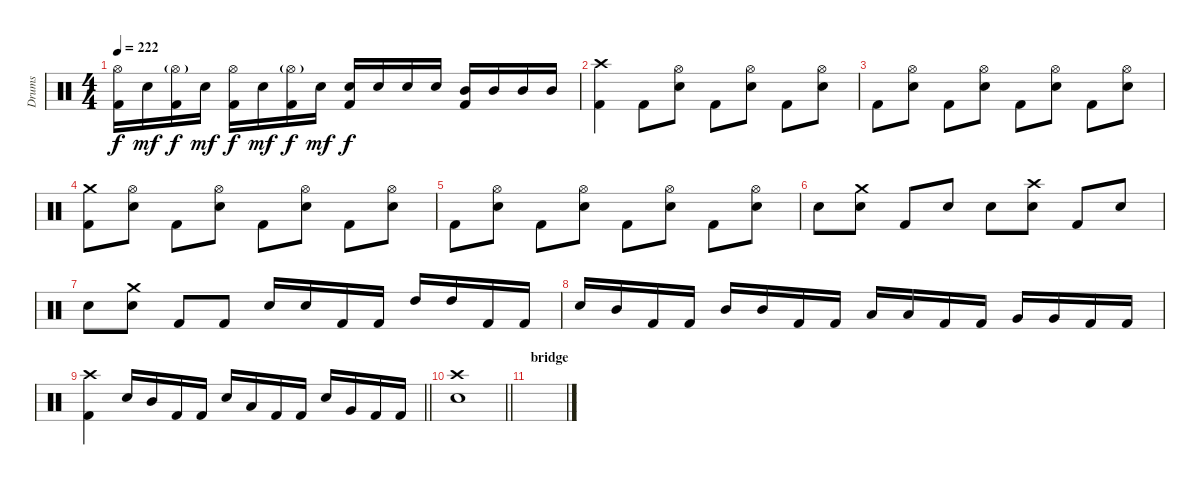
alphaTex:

\track ("Drums" "Drums") {instrument percussion}
\staff {score}
\articulation defaults
\ts (4 4)
\tempo 222
\clef neutral
\ks c
("Hi-Hat (open)" "Kick (hit) 2").16{dy f} "Electric Snare (hit)".16{dy mf} ("Hi-Hat (open)"{g} "Kick (hit) 2").16{dy f} "Electric Snare (hit)".16{dy mf} ("Hi-Hat (open)" "Kick (hit) 2").16{dy f} "Electric Snare (hit)".16{dy mf} ("Hi-Hat (open)"{g} "Kick (hit) 2").16{dy f} "Electric Snare (hit)".16{dy mf} ("Electric Snare (hit)" "Kick (hit) 2").16{dy f} "Electric Snare (hit)".16 "Electric Snare (hit)".16 "Electric Snare (hit)".16 ("Mid Tom (hit)" "Kick (hit) 2").16 "Mid Tom (hit)".16 "Mid Tom (hit)".16 "Mid Tom (hit)".16 |
("Crash high (hit)" "Kick (hit) 2").4 "Kick (hit) 2".8 ("Hi-Hat (open)" "Electric Snare (hit)").8 "Kick (hit) 2".8 ("Hi-Hat (open)" "Electric Snare (hit)").8 "Kick (hit) 2".8 ("Hi-Hat (open)" "Electric Snare (hit)").8 |
"Kick (hit) 2".8 ("Hi-Hat (open)" "Electric Snare (hit)").8 "Kick (hit) 2".8 ("Hi-Hat (open)" "Electric Snare (hit)").8 "Kick (hit) 2".8 ("Hi-Hat (open)" "Electric Snare (hit)").8 "Kick (hit) 2".8 ("Hi-Hat (open)" "Electric Snare (hit)").8 |
("Crash medium (hit)" "Kick (hit) 2").8 ("Hi-Hat (open)" "Electric Snare (hit)").8 "Kick (hit) 2".8 ("Hi-Hat (open)" "Electric Snare (hit)").8 "Kick (hit) 2".8 ("Hi-Hat (open)" "Electric Snare (hit)").8 "Kick (hit) 2".8 ("Hi-Hat (open)" "Electric Snare (hit)").8 |
"Kick (hit) 2".8 ("Hi-Hat (open)" "Electric Snare (hit)").8 "Kick (hit) 2".8 ("Hi-Hat (open)" "Electric Snare (hit)").8 "Kick (hit) 2".8 ("Hi-Hat (open)" "Electric Snare (hit)").8 "Kick (hit) 2".8 ("Hi-Hat (open)" "Electric Snare (hit)").8 |
"Electric Snare (hit)".8 ("Crash medium (hit)" "Electric Snare (hit)").8 "Kick (hit) 2".8 "Electric Snare (hit)".8 "Electric Snare (hit)".8 ("Crash high (hit)" "Electric Snare (hit)").8 "Kick (hit) 2".8 "Electric Snare (hit)".8 |
"Electric Snare (hit)".8 ("Crash medium (hit)" "Electric Snare (hit)").8 "Kick (hit) 2".8 "Kick (hit) 2".8 "Electric Snare (hit)".16 "Electric Snare (hit)".16 "Kick (hit) 2".16 "Kick (hit) 2".16 "High Tom (hit)".16 "High Tom (hit)".16 "Kick (hit) 2".16 "Kick (hit) 2".16 |
"Electric Snare (hit)".16 "Mid Tom (hit)".16 "Kick (hit) 2".16 "Kick (hit) 2".16 "Mid Tom (hit)".16 "Mid Tom (hit)".16 "Kick (hit) 2".16 "Kick (hit) 2".16 "Low Tom (hit)".16 "Low Tom (hit)".16 "Kick (hit) 2".16 "Kick (hit) 2".16 "Very Low Tom (hit)".16 "Very Low Tom (hit)".16 "Kick (hit) 2".16 "Kick (hit) 2".16 |
\barLineRight lightlight
("Crash high (hit)" "Kick (hit) 2").4 "Electric Snare (hit)".16 "Mid Tom (hit)".16 "Kick (hit) 2".16 "Kick (hit) 2".16 "Electric Snare (hit)".16 "Low Tom (hit)".16 "Kick (hit) 2".16 "Kick (hit) 2".16 "Electric Snare (hit)".16 "Very Low Tom (hit)".16 "Kick (hit) 2".16 "Kick (hit) 2".16 |
\barLineRight lightlight
("Crash high (hit)" "Electric Snare (hit)").1 |
\section ("" "bridge")
